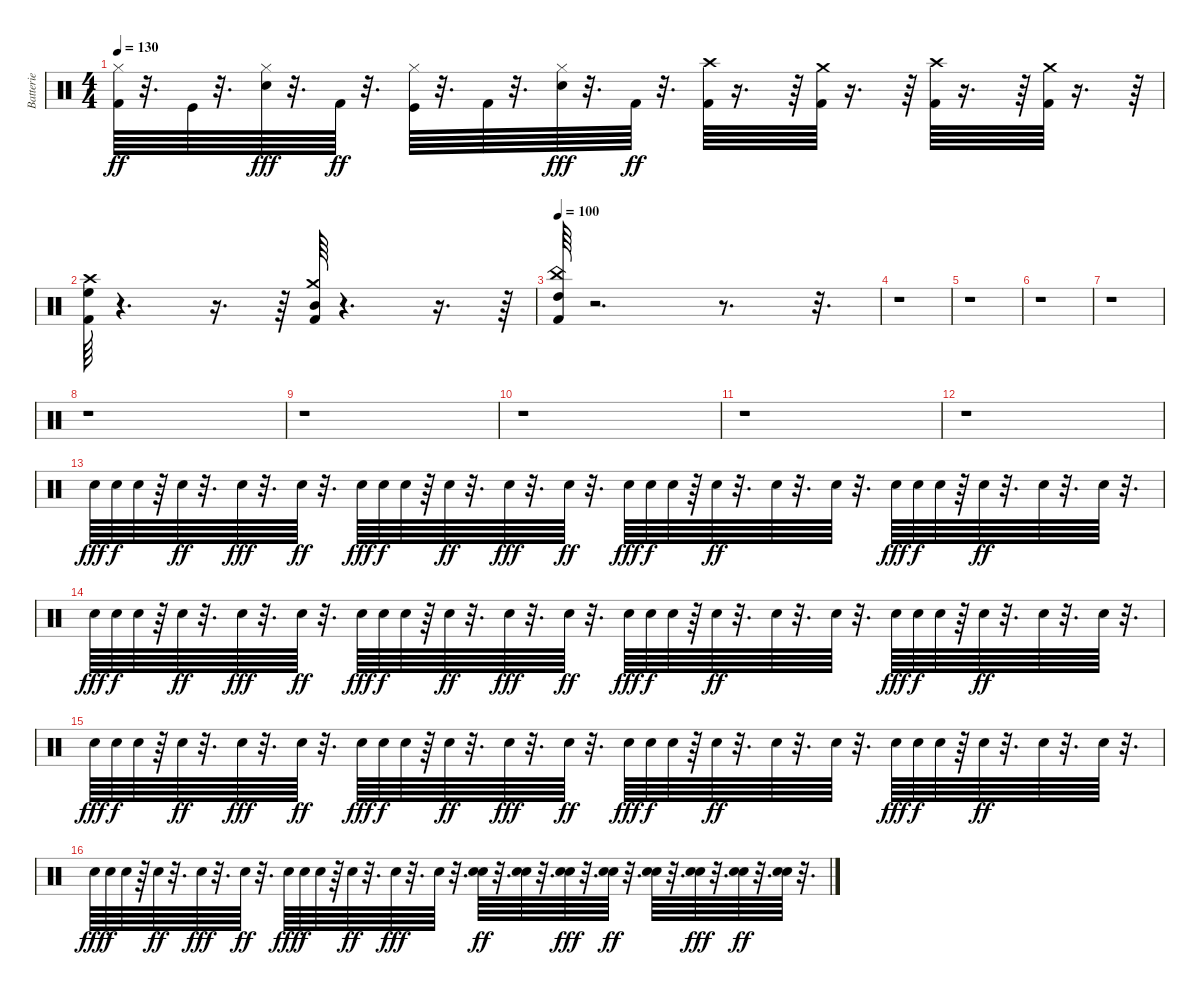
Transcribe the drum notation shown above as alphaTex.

\track ("Batterie" "Batterie") {instrument percussion}
\staff {score}
\articulation defaults
\ts (4 4)
\tempo 130
\clef neutral
\ks c
("Hi-Hat (closed)" "Kick (hit) 2").64{dy ff} r.32{d} "Kick (hit)".64 r.32{d} ("Hi-Hat (closed)" "Snare (hit) 2").64{dy fff} r.32{d} "Kick (hit) 2".64{dy ff} r.32{d} ("Hi-Hat (closed)" "Kick (hit)").64 r.32{d} "Kick (hit) 2".64 r.32{d} ("Hi-Hat (closed)" "Snare (hit) 2").64{dy fff} r.32{d} "Kick (hit) 2".64{dy ff} r.32{d} ("Crash high (hit)" "Kick (hit) 2").64 r.16{d} r.64 ("Crash medium (hit)" "Kick (hit) 2").64 r.16{d} r.64 ("Crash high (hit)" "Kick (hit) 2").64 r.16{d} r.64 ("Crash medium (hit)" "Kick (hit) 2").64 r.16{d} r.64 |
("High Floor Tom (hit)" "Crash high (hit)" "Kick (hit) 2").64 r.4{d} r.16{d} r.64 ("Crash medium (hit)" "Mid Tom (hit)" "Kick (hit) 2").64 r.4{d} r.16{d} r.64 |
\tempo 100
("China (hit)" "High Tom (hit)" "Kick (hit) 2").64 r.2{d} r.8{d} r.32{d} |
r.1 |
r.1 |
r.1 |
r.1 |
r.1 |
r.1 |
r.1 |
r.1 |
r.1 |
"Snare (hit) 2".64{dy fff volume 6} "Snare (hit) 2".64{dy f} "Snare (hit) 2".64{volume 6} r.64 "Snare (hit) 2".64{dy ff volume 6} r.32{d} "Snare (hit) 2".64{dy fff volume 6} r.32{d} "Snare (hit) 2".64{dy ff volume 6} r.32{d} "Snare (hit) 2".64{dy fff volume 7} "Snare (hit) 2".64{dy f} "Snare (hit) 2".64{volume 7} r.64 "Snare (hit) 2".64{dy ff volume 7} r.32{d} "Snare (hit) 2".64{dy fff volume 7} r.32{d} "Snare (hit) 2".64{dy ff volume 7} r.32{d} "Snare (hit) 2".64{dy fff volume 7} "Snare (hit) 2".64{dy f} "Snare (hit) 2".64{volume 7} r.64 "Snare (hit) 2".64{dy ff volume 7} r.32{d} "Snare (hit) 2".64{volume 8} r.32{d} "Snare (hit) 2".64{volume 8} r.32{d} "Snare (hit) 2".64{dy fff volume 8} "Snare (hit) 2".64{dy f} "Snare (hit) 2".64{volume 8} r.64 "Snare (hit) 2".64{dy ff volume 8} r.32{d} "Snare (hit) 2".64{volume 8} r.32{d} "Snare (hit) 2".64{volume 8} r.32{d} |
"Snare (hit) 2".64{dy fff volume 9} "Snare (hit) 2".64{dy f} "Snare (hit) 2".64{volume 9} r.64 "Snare (hit) 2".64{dy ff volume 9} r.32{d} "Snare (hit) 2".64{dy fff volume 9} r.32{d} "Snare (hit) 2".64{dy ff volume 9} r.32{d} "Snare (hit) 2".64{dy fff volume 10} "Snare (hit) 2".64{dy f} "Snare (hit) 2".64{volume 10} r.64 "Snare (hit) 2".64{dy ff volume 10} r.32{d} "Snare (hit) 2".64{dy fff volume 10} r.32{d} "Snare (hit) 2".64{dy ff volume 10} r.32{d} "Snare (hit) 2".64{dy fff volume 10} "Snare (hit) 2".64{dy f} "Snare (hit) 2".64{volume 10} r.64 "Snare (hit) 2".64{dy ff volume 11} r.32{d} "Snare (hit) 2".64{volume 11} r.32{d} "Snare (hit) 2".64{volume 11} r.32{d} "Snare (hit) 2".64{dy fff volume 12} "Snare (hit) 2".64{dy f} "Snare (hit) 2".64{volume 12} r.64 "Snare (hit) 2".64{dy ff volume 12} r.32{d} "Snare (hit) 2".64{volume 12} r.32{d} "Snare (hit) 2".64{volume 13} r.32{d} |
"Snare (hit) 2".64{dy fff volume 13} "Snare (hit) 2".64{dy f} "Snare (hit) 2".64{volume 13} r.64 "Snare (hit) 2".64{dy ff volume 13} r.32{d} "Snare (hit) 2".64{dy fff volume 14} r.32{d} "Snare (hit) 2".64{dy ff volume 14} r.32{d} "Snare (hit) 2".64{dy fff volume 14} "Snare (hit) 2".64{dy f} "Snare (hit) 2".64{volume 14} r.64 "Snare (hit) 2".64{dy ff volume 15} r.32{d} "Snare (hit) 2".64{dy fff volume 15} r.32{d} "Snare (hit) 2".64{dy ff volume 15} r.32{d} "Snare (hit) 2".64{dy fff volume 16} "Snare (hit) 2".64{dy f} "Snare (hit) 2".64{volume 16} r.64 "Snare (hit) 2".64{dy ff volume 16} r.32{d} "Snare (hit) 2".64{volume 16} r.32{d} "Snare (hit) 2".64{volume 16} r.32{d} "Snare (hit) 2".64{dy fff volume 16} "Snare (hit) 2".64{dy f} "Snare (hit) 2".64{volume 16} r.64 "Snare (hit) 2".64{dy ff volume 16} r.32{d} "Snare (hit) 2".64{volume 16} r.32{d} "Snare (hit) 2".64{volume 16} r.32{d} |
"Snare (hit) 2".64{dy fff volume 16} "Snare (hit) 2".64{dy f} "Snare (hit) 2".64 r.64 "Snare (hit) 2".64{dy ff} r.32{d} "Snare (hit) 2".64{dy fff} r.32{d} "Snare (hit) 2".64{dy ff} r.32{d} "Snare (hit) 2".64{dy fff} "Snare (hit) 2".64{dy f} "Snare (hit) 2".64 r.64 "Snare (hit) 2".64{dy ff} r.32{d} "Snare (hit) 2".64{dy fff} r.32{d} "Snare (hit) 2".64 r.32{d} ("Electric Snare (hit)" "Snare (hit) 2").64{dy ff} r.32{d} ("Electric Snare (hit)" "Snare (hit) 2").64 r.32{d} ("Electric Snare (hit)" "Snare (hit) 2").64{dy fff} r.32{d} ("Electric Snare (hit)" "Snare (hit) 2").64{dy ff} r.32{d} ("Electric Snare (hit)" "Snare (hit) 2").64 r.32{d} ("Electric Snare (hit)" "Snare (hit) 2").64{dy fff} r.32{d} ("Electric Snare (hit)" "Snare (hit) 2").64{dy ff} r.32{d} ("Electric Snare (hit)" "Snare (hit) 2").64 r.32{d}
